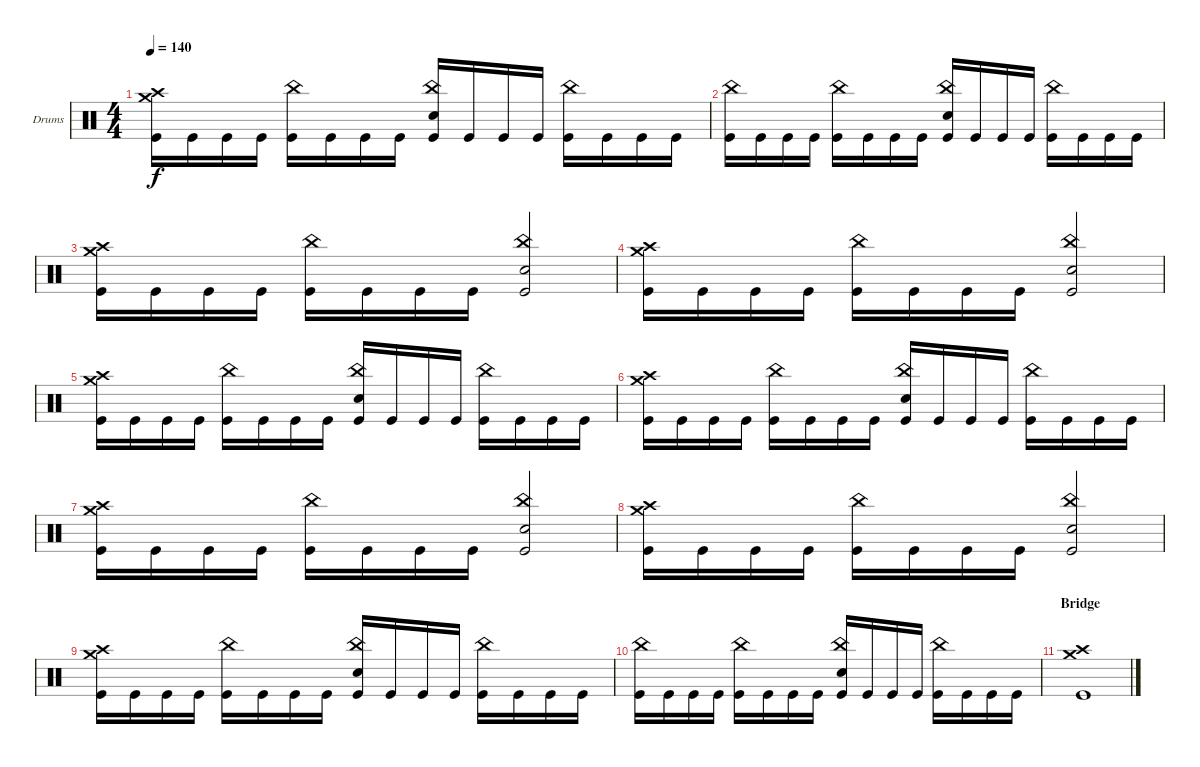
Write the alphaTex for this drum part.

\defaultSystemsLayout 4
\bracketExtendMode groupsimilarinstruments
\firstSystemTrackNameOrientation horizontal
\otherSystemsTrackNameOrientation horizontal
\track ("Drumkit" "Drums") {instrument percussion}
\staff {score}
\articulation defaults
\ts (4 4)
\tempo 140
\clef neutral
\ks c
("Kick (hit)" "Crash high (hit)" "Crash medium (hit)").16{dy f} "Kick (hit)".16 "Kick (hit)".16 "Kick (hit)".16 ("Kick (hit)" "China (hit)").16 "Kick (hit)".16 "Kick (hit)".16 "Kick (hit)".16 ("Kick (hit)" "Snare (hit) 2" "China (hit)").16 "Kick (hit)".16 "Kick (hit)".16 "Kick (hit)".16 ("Kick (hit)" "China (hit)").16 "Kick (hit)".16 "Kick (hit)".16 "Kick (hit)".16 |
("Kick (hit)" "China (hit)").16 "Kick (hit)".16 "Kick (hit)".16 "Kick (hit)".16 ("Kick (hit)" "China (hit)").16 "Kick (hit)".16 "Kick (hit)".16 "Kick (hit)".16 ("Kick (hit)" "Snare (hit) 2" "China (hit)").16 "Kick (hit)".16 "Kick (hit)".16 "Kick (hit)".16 ("Kick (hit)" "China (hit)").16 "Kick (hit)".16 "Kick (hit)".16 "Kick (hit)".16 |
("Kick (hit)" "Crash high (hit)" "Crash medium (hit)").16 "Kick (hit)".16 "Kick (hit)".16 "Kick (hit)".16 ("Kick (hit)" "China (hit)").16 "Kick (hit)".16 "Kick (hit)".16 "Kick (hit)".16 ("Kick (hit)" "Snare (hit) 2" "China (hit)").2 |
("Kick (hit)" "Crash high (hit)" "Crash medium (hit)").16 "Kick (hit)".16 "Kick (hit)".16 "Kick (hit)".16 ("Kick (hit)" "China (hit)").16 "Kick (hit)".16 "Kick (hit)".16 "Kick (hit)".16 ("Kick (hit)" "Snare (hit) 2" "China (hit)").2 |
("Kick (hit)" "Crash high (hit)" "Crash medium (hit)").16 "Kick (hit)".16 "Kick (hit)".16 "Kick (hit)".16 ("Kick (hit)" "China (hit)").16 "Kick (hit)".16 "Kick (hit)".16 "Kick (hit)".16 ("Kick (hit)" "Snare (hit) 2" "China (hit)").16 "Kick (hit)".16 "Kick (hit)".16 "Kick (hit)".16 ("Kick (hit)" "China (hit)").16 "Kick (hit)".16 "Kick (hit)".16 "Kick (hit)".16 |
("Kick (hit)" "Crash high (hit)" "Crash medium (hit)").16 "Kick (hit)".16 "Kick (hit)".16 "Kick (hit)".16 ("Kick (hit)" "China (hit)").16 "Kick (hit)".16 "Kick (hit)".16 "Kick (hit)".16 ("Kick (hit)" "Snare (hit) 2" "China (hit)").16 "Kick (hit)".16 "Kick (hit)".16 "Kick (hit)".16 ("Kick (hit)" "China (hit)").16 "Kick (hit)".16 "Kick (hit)".16 "Kick (hit)".16 |
("Kick (hit)" "Crash high (hit)" "Crash medium (hit)").16 "Kick (hit)".16 "Kick (hit)".16 "Kick (hit)".16 ("Kick (hit)" "China (hit)").16 "Kick (hit)".16 "Kick (hit)".16 "Kick (hit)".16 ("Kick (hit)" "Snare (hit) 2" "China (hit)").2 |
("Kick (hit)" "Crash high (hit)" "Crash medium (hit)").16 "Kick (hit)".16 "Kick (hit)".16 "Kick (hit)".16 ("Kick (hit)" "China (hit)").16 "Kick (hit)".16 "Kick (hit)".16 "Kick (hit)".16 ("Kick (hit)" "Snare (hit) 2" "China (hit)").2 |
("Kick (hit)" "Crash high (hit)" "Crash medium (hit)").16 "Kick (hit)".16 "Kick (hit)".16 "Kick (hit)".16 ("Kick (hit)" "China (hit)").16 "Kick (hit)".16 "Kick (hit)".16 "Kick (hit)".16 ("Kick (hit)" "Snare (hit) 2" "China (hit)").16 "Kick (hit)".16 "Kick (hit)".16 "Kick (hit)".16 ("Kick (hit)" "China (hit)").16 "Kick (hit)".16 "Kick (hit)".16 "Kick (hit)".16 |
("Kick (hit)" "China (hit)").16 "Kick (hit)".16 "Kick (hit)".16 "Kick (hit)".16 ("Kick (hit)" "China (hit)").16 "Kick (hit)".16 "Kick (hit)".16 "Kick (hit)".16 ("Kick (hit)" "Snare (hit) 2" "China (hit)").16 "Kick (hit)".16 "Kick (hit)".16 "Kick (hit)".16 ("Kick (hit)" "China (hit)").16 "Kick (hit)".16 "Kick (hit)".16 "Kick (hit)".16 |
\section ("" "Bridge")
("Kick (hit)" "Crash medium (hit)" "Crash high (hit)").1
